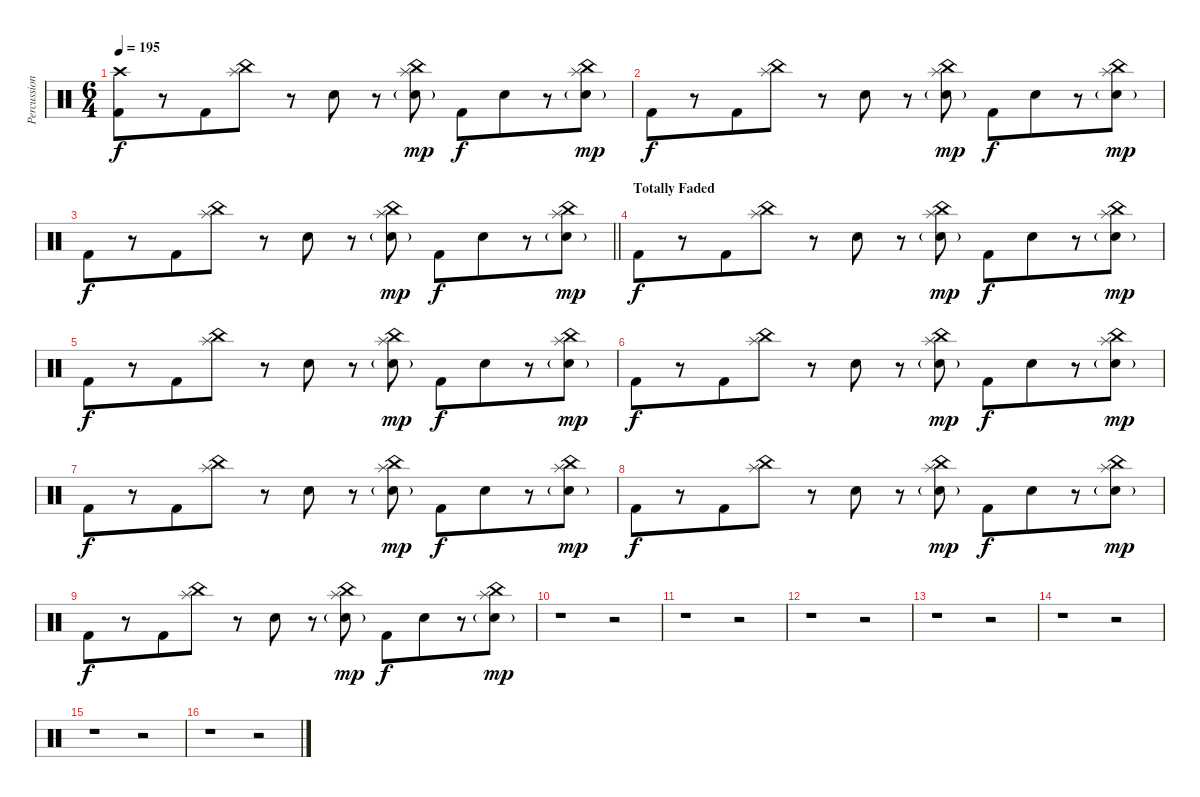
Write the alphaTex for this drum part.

\track ("Percussion" "Percussion") {instrument percussion bank 237}
\staff {score}
\articulation defaults
\ts (6 4)
\tempo 195
\clef neutral
\ks c
("Crash high (hit)" "Kick (hit) 2").8{dy f volume 0 beam merge} r.8{beam merge} "Kick (hit) 2".8 ("Splash (hit)" "China (hit)").8 r.8 "Electric Snare (hit)".8 r.8 ("Splash (hit)" "China (hit)" "Electric Snare (hit)"{g}).8{dy mp} "Kick (hit) 2".8{dy f} "Electric Snare (hit)".8{beam merge} r.8 ("Splash (hit)" "China (hit)" "Electric Snare (hit)"{g}).8{dy mp} |
"Kick (hit) 2".8{dy f beam merge} r.8{beam merge} "Kick (hit) 2".8 ("Splash (hit)" "China (hit)").8 r.8 "Electric Snare (hit)".8 r.8{beam merge} ("Splash (hit)" "China (hit)" "Electric Snare (hit)"{g}).8{dy mp} "Kick (hit) 2".8{dy f} "Electric Snare (hit)".8{beam merge} r.8{beam merge} ("Splash (hit)" "China (hit)" "Electric Snare (hit)"{g}).8{dy mp} |
\barLineRight lightlight "Kick (hit) 2".8{dy f beam merge}
r.8{beam merge} "Kick (hit) 2".8 ("Splash (hit)" "China (hit)").8 r.8 "Electric Snare (hit)".8 r.8 ("Splash (hit)" "China (hit)" "Electric Snare (hit)"{g}).8{dy mp} "Kick (hit) 2".8{dy f} "Electric Snare (hit)".8{beam merge} r.8 ("Splash (hit)" "China (hit)" "Electric Snare (hit)"{g}).8{dy mp} |
\section ("" "Totally Faded")
"Kick (hit) 2".8{dy f beam merge} r.8{beam merge} "Kick (hit) 2".8 ("Splash (hit)" "China (hit)").8 r.8 "Electric Snare (hit)".8 r.8{beam merge} ("Splash (hit)" "China (hit)" "Electric Snare (hit)"{g}).8{dy mp} "Kick (hit) 2".8{dy f} "Electric Snare (hit)".8{beam merge} r.8{beam merge} ("Splash (hit)" "China (hit)" "Electric Snare (hit)"{g}).8{dy mp} |
"Kick (hit) 2".8{dy f beam merge} r.8{beam merge} "Kick (hit) 2".8 ("Splash (hit)" "China (hit)").8 r.8 "Electric Snare (hit)".8 r.8{beam merge} ("Splash (hit)" "China (hit)" "Electric Snare (hit)"{g}).8{dy mp} "Kick (hit) 2".8{dy f} "Electric Snare (hit)".8{beam merge} r.8{beam merge} ("Splash (hit)" "China (hit)" "Electric Snare (hit)"{g}).8{dy mp} |
"Kick (hit) 2".8{dy f beam merge} r.8{beam merge} "Kick (hit) 2".8 ("Splash (hit)" "China (hit)").8 r.8 "Electric Snare (hit)".8 r.8{beam merge} ("Splash (hit)" "China (hit)" "Electric Snare (hit)"{g}).8{dy mp} "Kick (hit) 2".8{dy f} "Electric Snare (hit)".8{beam merge} r.8{beam merge} ("Splash (hit)" "China (hit)" "Electric Snare (hit)"{g}).8{dy mp} |
"Kick (hit) 2".8{dy f beam merge} r.8{beam merge} "Kick (hit) 2".8 ("Splash (hit)" "China (hit)").8 r.8 "Electric Snare (hit)".8 r.8{beam merge} ("Splash (hit)" "China (hit)" "Electric Snare (hit)"{g}).8{dy mp} "Kick (hit) 2".8{dy f} "Electric Snare (hit)".8{beam merge} r.8{beam merge} ("Splash (hit)" "China (hit)" "Electric Snare (hit)"{g}).8{dy mp} |
"Kick (hit) 2".8{dy f beam merge} r.8{beam merge} "Kick (hit) 2".8 ("Splash (hit)" "China (hit)").8 r.8 "Electric Snare (hit)".8 r.8{beam merge} ("Splash (hit)" "China (hit)" "Electric Snare (hit)"{g}).8{dy mp} "Kick (hit) 2".8{dy f} "Electric Snare (hit)".8{beam merge} r.8{beam merge} ("Splash (hit)" "China (hit)" "Electric Snare (hit)"{g}).8{dy mp} |
"Kick (hit) 2".8{dy f beam merge} r.8{beam merge} "Kick (hit) 2".8 ("Splash (hit)" "China (hit)").8 r.8 "Electric Snare (hit)".8 r.8{beam merge} ("Splash (hit)" "China (hit)" "Electric Snare (hit)"{g}).8{dy mp} "Kick (hit) 2".8{dy f} "Electric Snare (hit)".8{beam merge} r.8{beam merge} ("Splash (hit)" "China (hit)" "Electric Snare (hit)"{g}).8{dy mp} |
r.1 r.2 |
r.1{beam merge} r.2 |
r.1{beam merge} r.2 |
r.1{beam merge} r.2 |
r.1{beam merge} r.2 |
r.1{beam merge} r.2 |
r.1{beam merge} r.2
